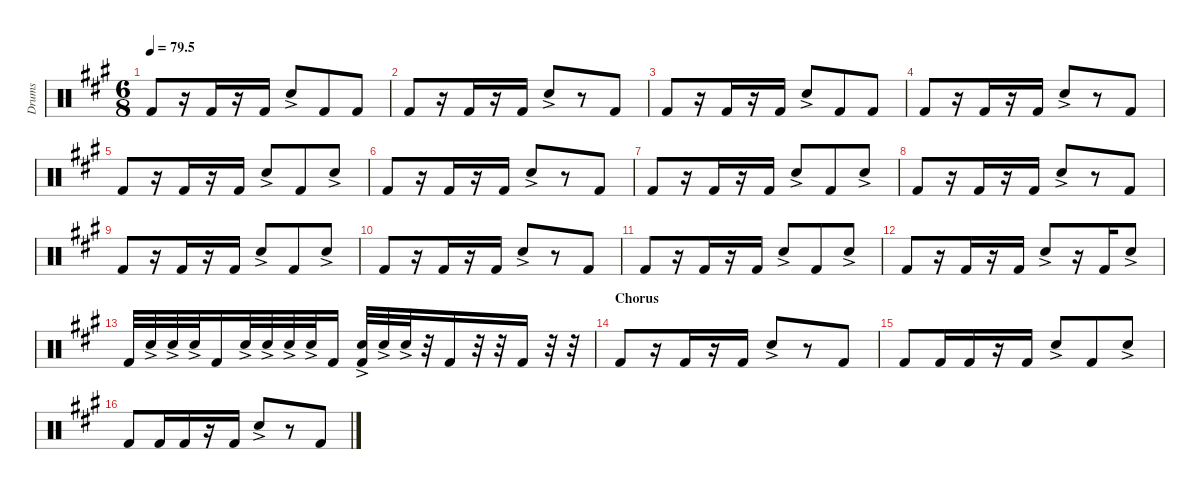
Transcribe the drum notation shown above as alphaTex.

\defaultSystemsLayout 4
\hideDynamics
\bracketExtendMode nobrackets
\otherSystemsTrackNameOrientation horizontal
\track ("F&S" "Drums") {instrument percussion}
\staff {score}
\articulation defaults
\ts (6 8)
\tempo
79.5
\accidentals auto
\clef neutral
\ottava regular
\simile none
\scale
0.333333
\ks a "Kick (hit) 2"{acc forcenatural}.8{dy f}
r.16 "Kick (hit) 2"{acc forcenatural}.16 r.16 "Kick (hit) 2"{acc forcenatural}.16 "Snare (hit) 2"{ac acc forcenatural}.8 "Kick (hit) 2"{acc forcenatural}.8 "Kick (hit) 2"{acc forcenatural}.8 |
\scale
0.333333 "Kick (hit) 2"{acc forcenatural}.8 r.16 "Kick (hit) 2"{acc forcenatural}.16 r.16 "Kick (hit) 2"{acc forcenatural}.16 "Snare (hit) 2"{ac acc forcenatural}.8 r.8 "Kick (hit) 2"{acc forcenatural}.8 |
\scale
0.333333 "Kick (hit) 2"{acc forcenatural}.8 r.16 "Kick (hit) 2"{acc forcenatural}.16 r.16 "Kick (hit) 2"{acc forcenatural}.16 "Snare (hit) 2"{ac acc forcenatural}.8 "Kick (hit) 2"{acc forcenatural}.8 "Kick (hit) 2"{acc forcenatural}.8 |
\scale
0.333333 "Kick (hit) 2"{acc forcenatural}.8 r.16 "Kick (hit) 2"{acc forcenatural}.16 r.16 "Kick (hit) 2"{acc forcenatural}.16 "Snare (hit) 2"{ac acc forcenatural}.8 r.8 "Kick (hit) 2"{acc forcenatural}.8 |
\scale
0.333333 "Kick (hit) 2"{acc forcenatural}.8 r.16 "Kick (hit) 2"{acc forcenatural}.16 r.16 "Kick (hit) 2"{acc forcenatural}.16 "Snare (hit) 2"{ac acc forcenatural}.8 "Kick (hit) 2"{acc forcenatural}.8 "Snare (hit) 2"{ac acc forcenatural}.8 |
\scale
0.333333 "Kick (hit) 2"{acc forcenatural}.8 r.16 "Kick (hit) 2"{acc forcenatural}.16 r.16 "Kick (hit) 2"{acc forcenatural}.16 "Snare (hit) 2"{ac acc forcenatural}.8 r.8 "Kick (hit) 2"{acc forcenatural}.8 |
\scale
0.333333 "Kick (hit) 2"{acc forcenatural}.8 r.16 "Kick (hit) 2"{acc forcenatural}.16 r.16 "Kick (hit) 2"{acc forcenatural}.16 "Snare (hit) 2"{ac acc forcenatural}.8 "Kick (hit) 2"{acc forcenatural}.8 "Snare (hit) 2"{ac acc forcenatural}.8 |
\scale
0.333333 "Kick (hit) 2"{acc forcenatural}.8 r.16 "Kick (hit) 2"{acc forcenatural}.16 r.16 "Kick (hit) 2"{acc forcenatural}.16 "Snare (hit) 2"{ac acc forcenatural}.8 r.8 "Kick (hit) 2"{acc forcenatural}.8 |
\scale
0.333333 "Kick (hit) 2"{acc forcenatural}.8 r.16 "Kick (hit) 2"{acc forcenatural}.16 r.16 "Kick (hit) 2"{acc forcenatural}.16 "Snare (hit) 2"{ac acc forcenatural}.8 "Kick (hit) 2"{acc forcenatural}.8 "Snare (hit) 2"{ac acc forcenatural}.8 |
\scale
0.333333 "Kick (hit) 2"{acc forcenatural}.8 r.16 "Kick (hit) 2"{acc forcenatural}.16 r.16 "Kick (hit) 2"{acc forcenatural}.16 "Snare (hit) 2"{ac acc forcenatural}.8 r.8 "Kick (hit) 2"{acc forcenatural}.8 |
\scale
0.333333 "Kick (hit) 2"{acc forcenatural}.8 r.16 "Kick (hit) 2"{acc forcenatural}.16 r.16 "Kick (hit) 2"{acc forcenatural}.16 "Snare (hit) 2"{ac acc forcenatural}.8 "Kick (hit) 2"{acc forcenatural}.8 "Snare (hit) 2"{ac acc forcenatural}.8 |
\scale
0.333333 "Kick (hit) 2"{acc forcenatural}.8 r.16 "Kick (hit) 2"{acc forcenatural}.16 r.16 "Kick (hit) 2"{acc forcenatural}.16 "Snare (hit) 2"{ac acc forcenatural}.8 r.16 "Kick (hit) 2"{acc forcenatural}.16 "Snare (hit) 2"{ac acc forcenatural}.8 |
\scale
0.333333 "Kick (hit) 2"{acc forcenatural}.32 "Snare (hit) 2"{ac acc forcenatural}.32 "Snare (hit) 2"{ac acc forcenatural}.32 "Snare (hit) 2"{ac acc forcenatural}.32 "Kick (hit) 2"{acc forcenatural}.16 "Snare (hit) 2"{ac acc forcenatural}.32 "Snare (hit) 2"{ac acc forcenatural}.32 "Snare (hit) 2"{ac acc forcenatural}.32 "Snare (hit) 2"{ac acc forcenatural}.32 "Kick (hit) 2"{acc forcenatural}.16 ("Snare (hit) 2"{ac acc forcenatural} "Kick (hit) 2"{acc forcenatural}).32 "Snare (hit) 2"{ac acc forcenatural}.32 "Snare (hit) 2"{ac acc forcenatural}.32 r.32 "Kick (hit) 2"{acc forcenatural}.16 r.32 r.32 "Kick (hit) 2"{acc forcenatural}.16 r.32 r.32 |
\section ("" "Chorus")
\scale
0.333333 "Kick (hit) 2"{acc forcenatural}.8 r.16 "Kick (hit) 2"{acc forcenatural}.16 r.16 "Kick (hit) 2"{acc forcenatural}.16 "Snare (hit) 2"{ac acc forcenatural}.8 r.8 "Kick (hit) 2"{acc forcenatural}.8 |
\scale
0.333333 "Kick (hit) 2"{acc forcenatural}.8 "Kick (hit) 2"{acc forcenatural}.16 "Kick (hit) 2"{acc forcenatural}.16 r.16 "Kick (hit) 2"{acc forcenatural}.16 "Snare (hit) 2"{ac acc forcenatural}.8 "Kick (hit) 2"{acc forcenatural}.8 "Snare (hit) 2"{ac acc forcenatural}.8 |
\scale
0.333333 "Kick (hit) 2"{acc forcenatural}.8 "Kick (hit) 2"{acc forcenatural}.16 "Kick (hit) 2"{acc forcenatural}.16 r.16 "Kick (hit) 2"{acc forcenatural}.16 "Snare (hit) 2"{ac acc forcenatural}.8 r.8 "Kick (hit) 2"{acc forcenatural}.8
